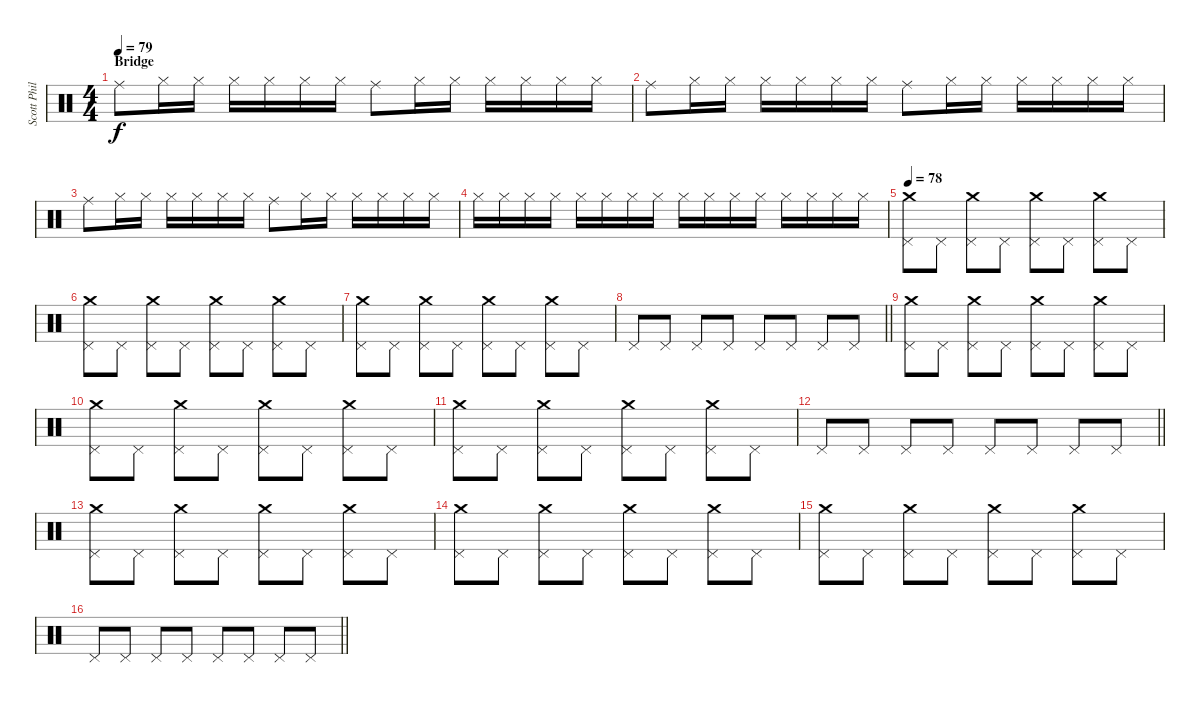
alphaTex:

\track ("Scott Phillips (Drums)" "Scott Phil") {instrument percussion}
\staff {score}
\articulation defaults
\ts (4 4)
\section ("" "Bridge")
\tempo 79
\clef neutral
\ks c "Ride (middle)".8{dy f} "Hi-Hat (closed)".16 "Hi-Hat (closed)".16 "Hi-Hat (closed)".16 "Hi-Hat (closed)".16 "Hi-Hat (closed)".16 "Hi-Hat (closed)".16 "Ride (middle)".8 "Hi-Hat (closed)".16 "Hi-Hat (closed)".16 "Hi-Hat (closed)".16 "Hi-Hat (closed)".16 "Hi-Hat (closed)".16 "Hi-Hat (closed)".16
|
"Ride (middle)".8 "Hi-Hat (closed)".16 "Hi-Hat (closed)".16 "Hi-Hat (closed)".16 "Hi-Hat (closed)".16 "Hi-Hat (closed)".16 "Hi-Hat (closed)".16 "Ride (middle)".8 "Hi-Hat (closed)".16 "Hi-Hat (closed)".16 "Hi-Hat (closed)".16 "Hi-Hat (closed)".16 "Hi-Hat (closed)".16 "Hi-Hat (closed)".16 |
"Ride (middle)".8 "Hi-Hat (closed)".16 "Hi-Hat (closed)".16 "Hi-Hat (closed)".16 "Hi-Hat (closed)".16 "Hi-Hat (closed)".16 "Hi-Hat (closed)".16 "Ride (middle)".8 "Hi-Hat (closed)".16 "Hi-Hat (closed)".16 "Hi-Hat (closed)".16 "Hi-Hat (closed)".16 "Hi-Hat (closed)".16 "Hi-Hat (closed)".16 |
"Hi-Hat (closed)".16 "Hi-Hat (closed)".16 "Hi-Hat (closed)".16 "Hi-Hat (closed)".16 "Hi-Hat (closed)".16 "Hi-Hat (closed)".16 "Hi-Hat (closed)".16 "Hi-Hat (closed)".16 "Hi-Hat (closed)".16 "Hi-Hat (closed)".16 "Hi-Hat (closed)".16 "Hi-Hat (closed)".16 "Hi-Hat (closed)".16 "Hi-Hat (closed)".16 "Hi-Hat (closed)".16 "Hi-Hat (closed)".16 |
\tempo 78
("Pedal Hi-Hat (hit)" "Crash medium (hit)").8 "Pedal Hi-Hat (hit)".8 ("Pedal Hi-Hat (hit)" "Crash medium (hit)").8 "Pedal Hi-Hat (hit)".8 ("Pedal Hi-Hat (hit)" "Crash medium (hit)").8 "Pedal Hi-Hat (hit)".8 ("Pedal Hi-Hat (hit)" "Crash medium (hit)").8 "Pedal Hi-Hat (hit)".8 |
("Pedal Hi-Hat (hit)" "Crash medium (hit)").8 "Pedal Hi-Hat (hit)".8 ("Pedal Hi-Hat (hit)" "Crash medium (hit)").8 "Pedal Hi-Hat (hit)".8 ("Pedal Hi-Hat (hit)" "Crash medium (hit)").8 "Pedal Hi-Hat (hit)".8 ("Pedal Hi-Hat (hit)" "Crash medium (hit)").8 "Pedal Hi-Hat (hit)".8 |
("Pedal Hi-Hat (hit)" "Crash medium (hit)").8 "Pedal Hi-Hat (hit)".8 ("Pedal Hi-Hat (hit)" "Crash medium (hit)").8 "Pedal Hi-Hat (hit)".8 ("Pedal Hi-Hat (hit)" "Crash medium (hit)").8 "Pedal Hi-Hat (hit)".8 ("Pedal Hi-Hat (hit)" "Crash medium (hit)").8 "Pedal Hi-Hat (hit)".8 |
\barLineRight lightlight "Pedal Hi-Hat (hit)".8 "Pedal Hi-Hat (hit)".8 "Pedal Hi-Hat (hit)".8 "Pedal Hi-Hat (hit)".8 "Pedal Hi-Hat (hit)".8 "Pedal Hi-Hat (hit)".8 "Pedal Hi-Hat (hit)".8 "Pedal Hi-Hat (hit)".8
|
("Pedal Hi-Hat (hit)" "Crash medium (hit)").8 "Pedal Hi-Hat (hit)".8 ("Pedal Hi-Hat (hit)" "Crash medium (hit)").8 "Pedal Hi-Hat (hit)".8 ("Pedal Hi-Hat (hit)" "Crash medium (hit)").8 "Pedal Hi-Hat (hit)".8 ("Pedal Hi-Hat (hit)" "Crash medium (hit)").8 "Pedal Hi-Hat (hit)".8 |
("Pedal Hi-Hat (hit)" "Crash medium (hit)").8 "Pedal Hi-Hat (hit)".8 ("Pedal Hi-Hat (hit)" "Crash medium (hit)").8 "Pedal Hi-Hat (hit)".8 ("Pedal Hi-Hat (hit)" "Crash medium (hit)").8 "Pedal Hi-Hat (hit)".8 ("Pedal Hi-Hat (hit)" "Crash medium (hit)").8 "Pedal Hi-Hat (hit)".8 |
("Pedal Hi-Hat (hit)" "Crash medium (hit)").8 "Pedal Hi-Hat (hit)".8 ("Pedal Hi-Hat (hit)" "Crash medium (hit)").8 "Pedal Hi-Hat (hit)".8 ("Pedal Hi-Hat (hit)" "Crash medium (hit)").8 "Pedal Hi-Hat (hit)".8 ("Pedal Hi-Hat (hit)" "Crash medium (hit)").8 "Pedal Hi-Hat (hit)".8 |
\barLineRight lightlight "Pedal Hi-Hat (hit)".8 "Pedal Hi-Hat (hit)".8 "Pedal Hi-Hat (hit)".8 "Pedal Hi-Hat (hit)".8 "Pedal Hi-Hat (hit)".8 "Pedal Hi-Hat (hit)".8 "Pedal Hi-Hat (hit)".8 "Pedal Hi-Hat (hit)".8
|
("Pedal Hi-Hat (hit)" "Crash medium (hit)").8 "Pedal Hi-Hat (hit)".8 ("Pedal Hi-Hat (hit)" "Crash medium (hit)").8 "Pedal Hi-Hat (hit)".8 ("Pedal Hi-Hat (hit)" "Crash medium (hit)").8 "Pedal Hi-Hat (hit)".8 ("Pedal Hi-Hat (hit)" "Crash medium (hit)").8 "Pedal Hi-Hat (hit)".8 |
("Pedal Hi-Hat (hit)" "Crash medium (hit)").8 "Pedal Hi-Hat (hit)".8 ("Pedal Hi-Hat (hit)" "Crash medium (hit)").8 "Pedal Hi-Hat (hit)".8 ("Pedal Hi-Hat (hit)" "Crash medium (hit)").8 "Pedal Hi-Hat (hit)".8 ("Pedal Hi-Hat (hit)" "Crash medium (hit)").8 "Pedal Hi-Hat (hit)".8 |
("Pedal Hi-Hat (hit)" "Crash medium (hit)").8 "Pedal Hi-Hat (hit)".8 ("Pedal Hi-Hat (hit)" "Crash medium (hit)").8 "Pedal Hi-Hat (hit)".8 ("Pedal Hi-Hat (hit)" "Crash medium (hit)").8 "Pedal Hi-Hat (hit)".8 ("Pedal Hi-Hat (hit)" "Crash medium (hit)").8 "Pedal Hi-Hat (hit)".8 |
\barLineRight lightlight "Pedal Hi-Hat (hit)".8 "Pedal Hi-Hat (hit)".8 "Pedal Hi-Hat (hit)".8 "Pedal Hi-Hat (hit)".8 "Pedal Hi-Hat (hit)".8 "Pedal Hi-Hat (hit)".8 "Pedal Hi-Hat (hit)".8 "Pedal Hi-Hat (hit)".8
